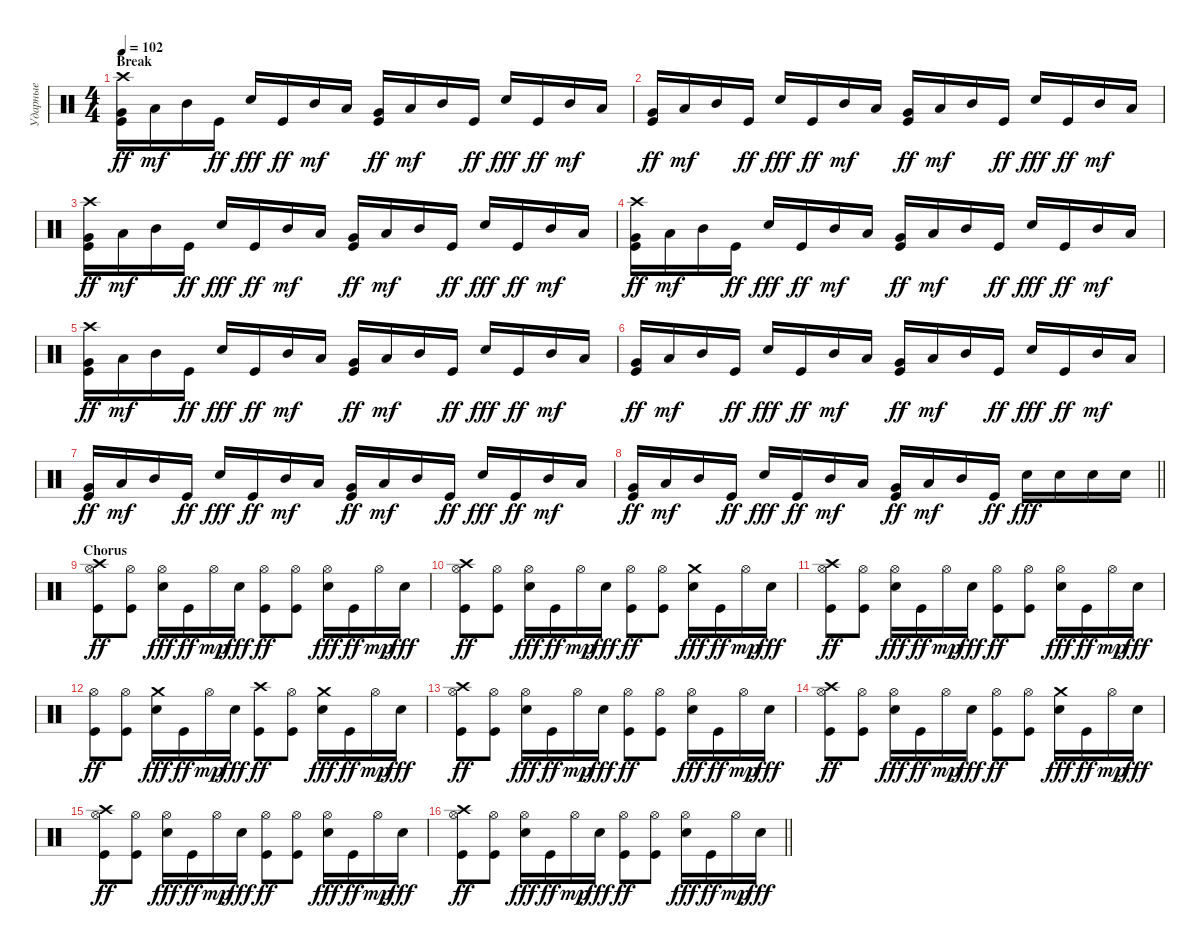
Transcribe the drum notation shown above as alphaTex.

\track ("Ударные" "Ударные") {instrument percussion}
\staff {score}
\articulation defaults
\ts (4 4)
\section ("" "Break")
\tempo 102
\clef neutral
\ks c
("Crash high (hit)" "Very Low Tom (hit)" "Kick (hit)").16{dy ff} "Low Tom (hit)".16{dy mf} "Mid Tom (hit)".16 "Kick (hit)".16{dy ff} "Electric Snare (hit)".16{dy fff} "Kick (hit)".16{dy ff} "Mid Tom (hit)".16{dy mf} "Low Tom (hit)".16 ("Very Low Tom (hit)" "Kick (hit)").16{dy ff} "Low Tom (hit)".16{dy mf} "Mid Tom (hit)".16 "Kick (hit)".16{dy ff} "Electric Snare (hit)".16{dy fff} "Kick (hit)".16{dy ff} "Mid Tom (hit)".16{dy mf} "Low Tom (hit)".16 |
("Very Low Tom (hit)" "Kick (hit)").16{dy ff} "Low Tom (hit)".16{dy mf} "Mid Tom (hit)".16 "Kick (hit)".16{dy ff} "Electric Snare (hit)".16{dy fff} "Kick (hit)".16{dy ff} "Mid Tom (hit)".16{dy mf} "Low Tom (hit)".16 ("Very Low Tom (hit)" "Kick (hit)").16{dy ff} "Low Tom (hit)".16{dy mf} "Mid Tom (hit)".16 "Kick (hit)".16{dy ff} "Electric Snare (hit)".16{dy fff} "Kick (hit)".16{dy ff} "Mid Tom (hit)".16{dy mf} "Low Tom (hit)".16 |
("Crash high (hit)" "Very Low Tom (hit)" "Kick (hit)").16{dy ff} "Low Tom (hit)".16{dy mf} "Mid Tom (hit)".16 "Kick (hit)".16{dy ff} "Electric Snare (hit)".16{dy fff} "Kick (hit)".16{dy ff} "Mid Tom (hit)".16{dy mf} "Low Tom (hit)".16 ("Very Low Tom (hit)" "Kick (hit)").16{dy ff} "Low Tom (hit)".16{dy mf} "Mid Tom (hit)".16 "Kick (hit)".16{dy ff} "Electric Snare (hit)".16{dy fff} "Kick (hit)".16{dy ff} "Mid Tom (hit)".16{dy mf} "Low Tom (hit)".16 |
("Crash high (hit)" "Very Low Tom (hit)" "Kick (hit)").16{dy ff} "Low Tom (hit)".16{dy mf} "Mid Tom (hit)".16 "Kick (hit)".16{dy ff} "Electric Snare (hit)".16{dy fff} "Kick (hit)".16{dy ff} "Mid Tom (hit)".16{dy mf} "Low Tom (hit)".16 ("Very Low Tom (hit)" "Kick (hit)").16{dy ff} "Low Tom (hit)".16{dy mf} "Mid Tom (hit)".16 "Kick (hit)".16{dy ff} "Electric Snare (hit)".16{dy fff} "Kick (hit)".16{dy ff} "Mid Tom (hit)".16{dy mf} "Low Tom (hit)".16 |
("Crash high (hit)" "Very Low Tom (hit)" "Kick (hit)").16{dy ff} "Low Tom (hit)".16{dy mf} "Mid Tom (hit)".16 "Kick (hit)".16{dy ff} "Electric Snare (hit)".16{dy fff} "Kick (hit)".16{dy ff} "Mid Tom (hit)".16{dy mf} "Low Tom (hit)".16 ("Very Low Tom (hit)" "Kick (hit)").16{dy ff} "Low Tom (hit)".16{dy mf} "Mid Tom (hit)".16 "Kick (hit)".16{dy ff} "Electric Snare (hit)".16{dy fff} "Kick (hit)".16{dy ff} "Mid Tom (hit)".16{dy mf} "Low Tom (hit)".16 |
("Very Low Tom (hit)" "Kick (hit)").16{dy ff} "Low Tom (hit)".16{dy mf} "Mid Tom (hit)".16 "Kick (hit)".16{dy ff} "Electric Snare (hit)".16{dy fff} "Kick (hit)".16{dy ff} "Mid Tom (hit)".16{dy mf} "Low Tom (hit)".16 ("Very Low Tom (hit)" "Kick (hit)").16{dy ff} "Low Tom (hit)".16{dy mf} "Mid Tom (hit)".16 "Kick (hit)".16{dy ff} "Electric Snare (hit)".16{dy fff} "Kick (hit)".16{dy ff} "Mid Tom (hit)".16{dy mf} "Low Tom (hit)".16 |
("Very Low Tom (hit)" "Kick (hit)").16{dy ff} "Low Tom (hit)".16{dy mf} "Mid Tom (hit)".16 "Kick (hit)".16{dy ff} "Electric Snare (hit)".16{dy fff} "Kick (hit)".16{dy ff} "Mid Tom (hit)".16{dy mf} "Low Tom (hit)".16 ("Very Low Tom (hit)" "Kick (hit)").16{dy ff} "Low Tom (hit)".16{dy mf} "Mid Tom (hit)".16 "Kick (hit)".16{dy ff} "Electric Snare (hit)".16{dy fff} "Kick (hit)".16{dy ff} "Mid Tom (hit)".16{dy mf} "Low Tom (hit)".16 |
\barLineRight lightlight
("Very Low Tom (hit)" "Kick (hit)").16{dy ff} "Low Tom (hit)".16{dy mf} "Mid Tom (hit)".16 "Kick (hit)".16{dy ff} "Electric Snare (hit)".16{dy fff} "Kick (hit)".16{dy ff} "Mid Tom (hit)".16{dy mf} "Low Tom (hit)".16 ("Very Low Tom (hit)" "Kick (hit)").16{dy ff} "Low Tom (hit)".16{dy mf} "Mid Tom (hit)".16 "Kick (hit)".16{dy ff} "Electric Snare (hit)".16{dy fff} "Electric Snare (hit)".16 "Electric Snare (hit)".16 "Electric Snare (hit)".16 |
\section ("" "Chorus")
("Crash high (hit)" "Hi-Hat (open)" "Kick (hit)").8{dy ff} ("Hi-Hat (open)" "Kick (hit)").8 ("Hi-Hat (open)" "Electric Snare (hit)").16{dy fff} "Kick (hit)".16{dy ff} "Hi-Hat (open)".16{dy mp} "Electric Snare (hit)".16{dy fff} ("Hi-Hat (open)" "Kick (hit)").8{dy ff} ("Hi-Hat (open)" "Kick (hit)").8 ("Hi-Hat (open)" "Electric Snare (hit)").16{dy fff} "Kick (hit)".16{dy ff} "Hi-Hat (open)".16{dy mp} "Electric Snare (hit)".16{dy fff} |
("Crash high (hit)" "Hi-Hat (open)" "Kick (hit)").8{dy ff} ("Hi-Hat (open)" "Kick (hit)").8 ("Hi-Hat (open)" "Electric Snare (hit)").16{dy fff} "Kick (hit)".16{dy ff} "Hi-Hat (open)".16{dy mp} "Electric Snare (hit)".16{dy fff} ("Hi-Hat (open)" "Kick (hit)").8{dy ff} ("Hi-Hat (open)" "Kick (hit)").8 ("Crash medium (hit)" "Electric Snare (hit)").16{dy fff} "Kick (hit)".16{dy ff} "Hi-Hat (open)".16{dy mp} "Electric Snare (hit)".16{dy fff} |
("Crash high (hit)" "Hi-Hat (open)" "Kick (hit)").8{dy ff} ("Hi-Hat (open)" "Kick (hit)").8 ("Hi-Hat (open)" "Electric Snare (hit)").16{dy fff} "Kick (hit)".16{dy ff} "Hi-Hat (open)".16{dy mp} "Electric Snare (hit)".16{dy fff} ("Hi-Hat (open)" "Kick (hit)").8{dy ff} ("Hi-Hat (open)" "Kick (hit)").8 ("Hi-Hat (open)" "Electric Snare (hit)").16{dy fff} "Kick (hit)".16{dy ff} "Hi-Hat (open)".16{dy mp} "Electric Snare (hit)".16{dy fff} |
("Hi-Hat (open)" "Kick (hit)").8{dy ff} ("Hi-Hat (open)" "Kick (hit)").8 ("Crash medium (hit)" "Electric Snare (hit)").16{dy fff} "Kick (hit)".16{dy ff} "Hi-Hat (open)".16{dy mp} "Electric Snare (hit)".16{dy fff} ("Crash high (hit)" "Kick (hit)").8{dy ff} ("Hi-Hat (open)" "Kick (hit)").8 ("Crash medium (hit)" "Electric Snare (hit)").16{dy fff} "Kick (hit)".16{dy ff} "Hi-Hat (open)".16{dy mp} "Electric Snare (hit)".16{dy fff} |
("Crash high (hit)" "Hi-Hat (open)" "Kick (hit)").8{dy ff} ("Hi-Hat (open)" "Kick (hit)").8 ("Hi-Hat (open)" "Electric Snare (hit)").16{dy fff} "Kick (hit)".16{dy ff} "Hi-Hat (open)".16{dy mp} "Electric Snare (hit)".16{dy fff} ("Hi-Hat (open)" "Kick (hit)").8{dy ff} ("Hi-Hat (open)" "Kick (hit)").8 ("Hi-Hat (open)" "Electric Snare (hit)").16{dy fff} "Kick (hit)".16{dy ff} "Hi-Hat (open)".16{dy mp} "Electric Snare (hit)".16{dy fff} |
("Crash high (hit)" "Hi-Hat (open)" "Kick (hit)").8{dy ff} ("Hi-Hat (open)" "Kick (hit)").8 ("Hi-Hat (open)" "Electric Snare (hit)").16{dy fff} "Kick (hit)".16{dy ff} "Hi-Hat (open)".16{dy mp} "Electric Snare (hit)".16{dy fff} ("Hi-Hat (open)" "Kick (hit)").8{dy ff} ("Hi-Hat (open)" "Kick (hit)").8 ("Crash medium (hit)" "Electric Snare (hit)").16{dy fff} "Kick (hit)".16{dy ff} "Hi-Hat (open)".16{dy mp} "Electric Snare (hit)".16{dy fff} |
("Crash high (hit)" "Hi-Hat (open)" "Kick (hit)").8{dy ff} ("Hi-Hat (open)" "Kick (hit)").8 ("Hi-Hat (open)" "Electric Snare (hit)").16{dy fff} "Kick (hit)".16{dy ff} "Hi-Hat (open)".16{dy mp} "Electric Snare (hit)".16{dy fff} ("Hi-Hat (open)" "Kick (hit)").8{dy ff} ("Hi-Hat (open)" "Kick (hit)").8 ("Hi-Hat (open)" "Electric Snare (hit)").16{dy fff} "Kick (hit)".16{dy ff} "Hi-Hat (open)".16{dy mp} "Electric Snare (hit)".16{dy fff} |
\barLineRight lightlight
("Crash high (hit)" "Hi-Hat (open)" "Kick (hit)").8{dy ff} ("Hi-Hat (open)" "Kick (hit)").8 ("Hi-Hat (open)" "Electric Snare (hit)").16{dy fff} "Kick (hit)".16{dy ff} "Hi-Hat (open)".16{dy mp} "Electric Snare (hit)".16{dy fff} ("Hi-Hat (open)" "Kick (hit)").8{dy ff} ("Hi-Hat (open)" "Kick (hit)").8 ("Hi-Hat (open)" "Electric Snare (hit)").16{dy fff} "Kick (hit)".16{dy ff} "Hi-Hat (open)".16{dy mp} "Electric Snare (hit)".16{dy fff}
